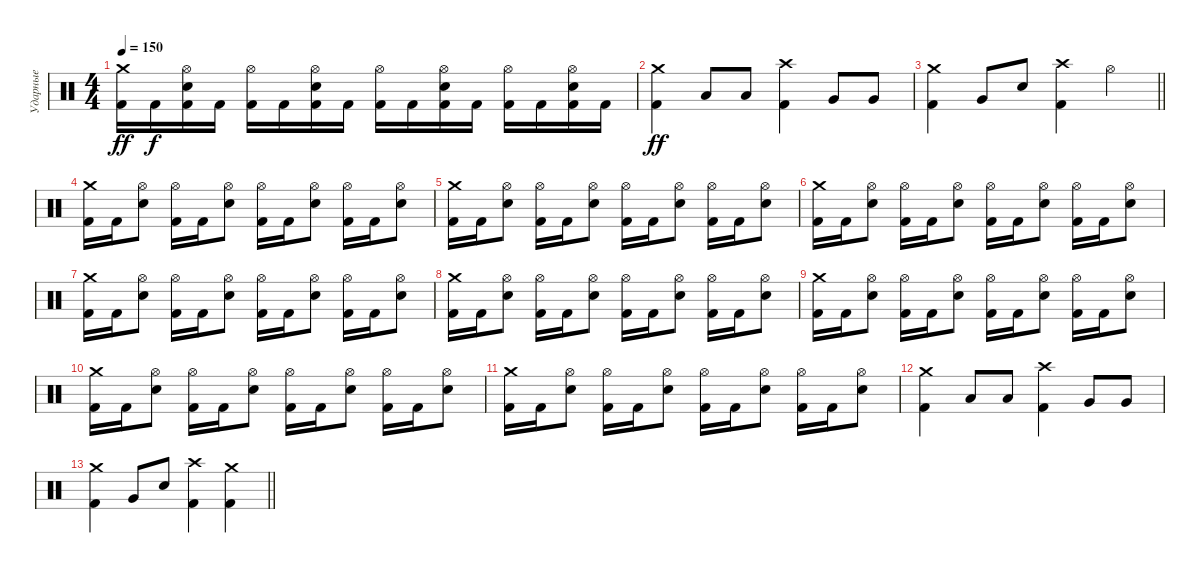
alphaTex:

\track ("Ударные" "Ударные") {instrument percussion}
\staff {score}
\articulation defaults
\ts (4 4)
\tempo 150
\clef neutral
\ks c
("Crash medium (hit)" "Kick (hit) 2").16{dy ff} "Kick (hit) 2".16{dy f} ("Kick (hit) 2" "Hi-Hat (open)" "Snare (hit) 2").16 "Kick (hit) 2".16 ("Kick (hit) 2" "Hi-Hat (open)").16 "Kick (hit) 2".16 ("Kick (hit) 2" "Hi-Hat (open)" "Snare (hit) 2").16 "Kick (hit) 2".16 ("Kick (hit) 2" "Hi-Hat (open)").16 "Kick (hit) 2".16 ("Kick (hit) 2" "Hi-Hat (open)" "Snare (hit) 2").16 "Kick (hit) 2".16 ("Kick (hit) 2" "Hi-Hat (open)").16 "Kick (hit) 2".16 ("Kick (hit) 2" "Hi-Hat (open)" "Snare (hit) 2").16 "Kick (hit) 2".16 |
("Crash medium (hit)" "Kick (hit) 2").4{dy ff} "Low Tom (hit)".8 "Low Tom (hit)".8 ("Crash high (hit)" "Kick (hit) 2").4 "Very Low Tom (hit)".8 "Very Low Tom (hit)".8 |
\barLineRight lightlight
("Kick (hit) 2" "Crash medium (hit)").4 "Very Low Tom (hit)".8 "Snare (hit) 2".8 ("Kick (hit) 2" "Crash high (hit)").4 "Hi-Hat (open)".4 |
("Crash medium (hit)" "Kick (hit) 2").16 "Kick (hit) 2".16 ("Hi-Hat (open)" "Snare (hit) 2").8 ("Hi-Hat (open)" "Kick (hit) 2").16 "Kick (hit) 2".16 ("Hi-Hat (open)" "Snare (hit) 2").8 ("Hi-Hat (open)" "Kick (hit) 2").16 "Kick (hit) 2".16 ("Hi-Hat (open)" "Snare (hit) 2").8 ("Hi-Hat (open)" "Kick (hit) 2").16 "Kick (hit) 2".16 ("Hi-Hat (open)" "Snare (hit) 2").8 |
("Crash medium (hit)" "Kick (hit) 2").16 "Kick (hit) 2".16 ("Hi-Hat (open)" "Snare (hit) 2").8 ("Hi-Hat (open)" "Kick (hit) 2").16 "Kick (hit) 2".16 ("Hi-Hat (open)" "Snare (hit) 2").8 ("Hi-Hat (open)" "Kick (hit) 2").16 "Kick (hit) 2".16 ("Hi-Hat (open)" "Snare (hit) 2").8 ("Hi-Hat (open)" "Kick (hit) 2").16 "Kick (hit) 2".16 ("Hi-Hat (open)" "Snare (hit) 2").8 |
("Crash medium (hit)" "Kick (hit) 2").16 "Kick (hit) 2".16 ("Hi-Hat (open)" "Snare (hit) 2").8 ("Hi-Hat (open)" "Kick (hit) 2").16 "Kick (hit) 2".16 ("Hi-Hat (open)" "Snare (hit) 2").8 ("Hi-Hat (open)" "Kick (hit) 2").16 "Kick (hit) 2".16 ("Hi-Hat (open)" "Snare (hit) 2").8 ("Hi-Hat (open)" "Kick (hit) 2").16 "Kick (hit) 2".16 ("Hi-Hat (open)" "Snare (hit) 2").8 |
("Crash medium (hit)" "Kick (hit) 2").16 "Kick (hit) 2".16 ("Hi-Hat (open)" "Snare (hit) 2").8 ("Hi-Hat (open)" "Kick (hit) 2").16 "Kick (hit) 2".16 ("Hi-Hat (open)" "Snare (hit) 2").8 ("Hi-Hat (open)" "Kick (hit) 2").16 "Kick (hit) 2".16 ("Hi-Hat (open)" "Snare (hit) 2").8 ("Hi-Hat (open)" "Kick (hit) 2").16 "Kick (hit) 2".16 ("Hi-Hat (open)" "Snare (hit) 2").8 |
("Crash medium (hit)" "Kick (hit) 2").16 "Kick (hit) 2".16 ("Hi-Hat (open)" "Snare (hit) 2").8 ("Hi-Hat (open)" "Kick (hit) 2").16 "Kick (hit) 2".16 ("Hi-Hat (open)" "Snare (hit) 2").8 ("Hi-Hat (open)" "Kick (hit) 2").16 "Kick (hit) 2".16 ("Hi-Hat (open)" "Snare (hit) 2").8 ("Hi-Hat (open)" "Kick (hit) 2").16 "Kick (hit) 2".16 ("Hi-Hat (open)" "Snare (hit) 2").8 |
("Crash medium (hit)" "Kick (hit) 2").16 "Kick (hit) 2".16 ("Hi-Hat (open)" "Snare (hit) 2").8 ("Hi-Hat (open)" "Kick (hit) 2").16 "Kick (hit) 2".16 ("Hi-Hat (open)" "Snare (hit) 2").8 ("Hi-Hat (open)" "Kick (hit) 2").16 "Kick (hit) 2".16 ("Hi-Hat (open)" "Snare (hit) 2").8 ("Hi-Hat (open)" "Kick (hit) 2").16 "Kick (hit) 2".16 ("Hi-Hat (open)" "Snare (hit) 2").8 |
("Crash medium (hit)" "Kick (hit) 2").16 "Kick (hit) 2".16 ("Hi-Hat (open)" "Snare (hit) 2").8 ("Hi-Hat (open)" "Kick (hit) 2").16 "Kick (hit) 2".16 ("Hi-Hat (open)" "Snare (hit) 2").8 ("Hi-Hat (open)" "Kick (hit) 2").16 "Kick (hit) 2".16 ("Hi-Hat (open)" "Snare (hit) 2").8 ("Hi-Hat (open)" "Kick (hit) 2").16 "Kick (hit) 2".16 ("Hi-Hat (open)" "Snare (hit) 2").8 |
("Crash medium (hit)" "Kick (hit) 2").16 "Kick (hit) 2".16 ("Hi-Hat (open)" "Snare (hit) 2").8 ("Hi-Hat (open)" "Kick (hit) 2").16 "Kick (hit) 2".16 ("Hi-Hat (open)" "Snare (hit) 2").8 ("Hi-Hat (open)" "Kick (hit) 2").16 "Kick (hit) 2".16 ("Hi-Hat (open)" "Snare (hit) 2").8 ("Hi-Hat (open)" "Kick (hit) 2").16 "Kick (hit) 2".16 ("Hi-Hat (open)" "Snare (hit) 2").8 |
("Crash medium (hit)" "Kick (hit) 2").4 "Low Tom (hit)".8 "Low Tom (hit)".8 ("Crash high (hit)" "Kick (hit) 2").4 "Very Low Tom (hit)".8 "Very Low Tom (hit)".8 |
\barLineRight lightlight
("Kick (hit) 2" "Crash medium (hit)").4 "Very Low Tom (hit)".8 "Snare (hit) 2".8 ("Kick (hit) 2" "Crash high (hit)").4 ("Crash medium (hit)" "Kick (hit) 2").4
